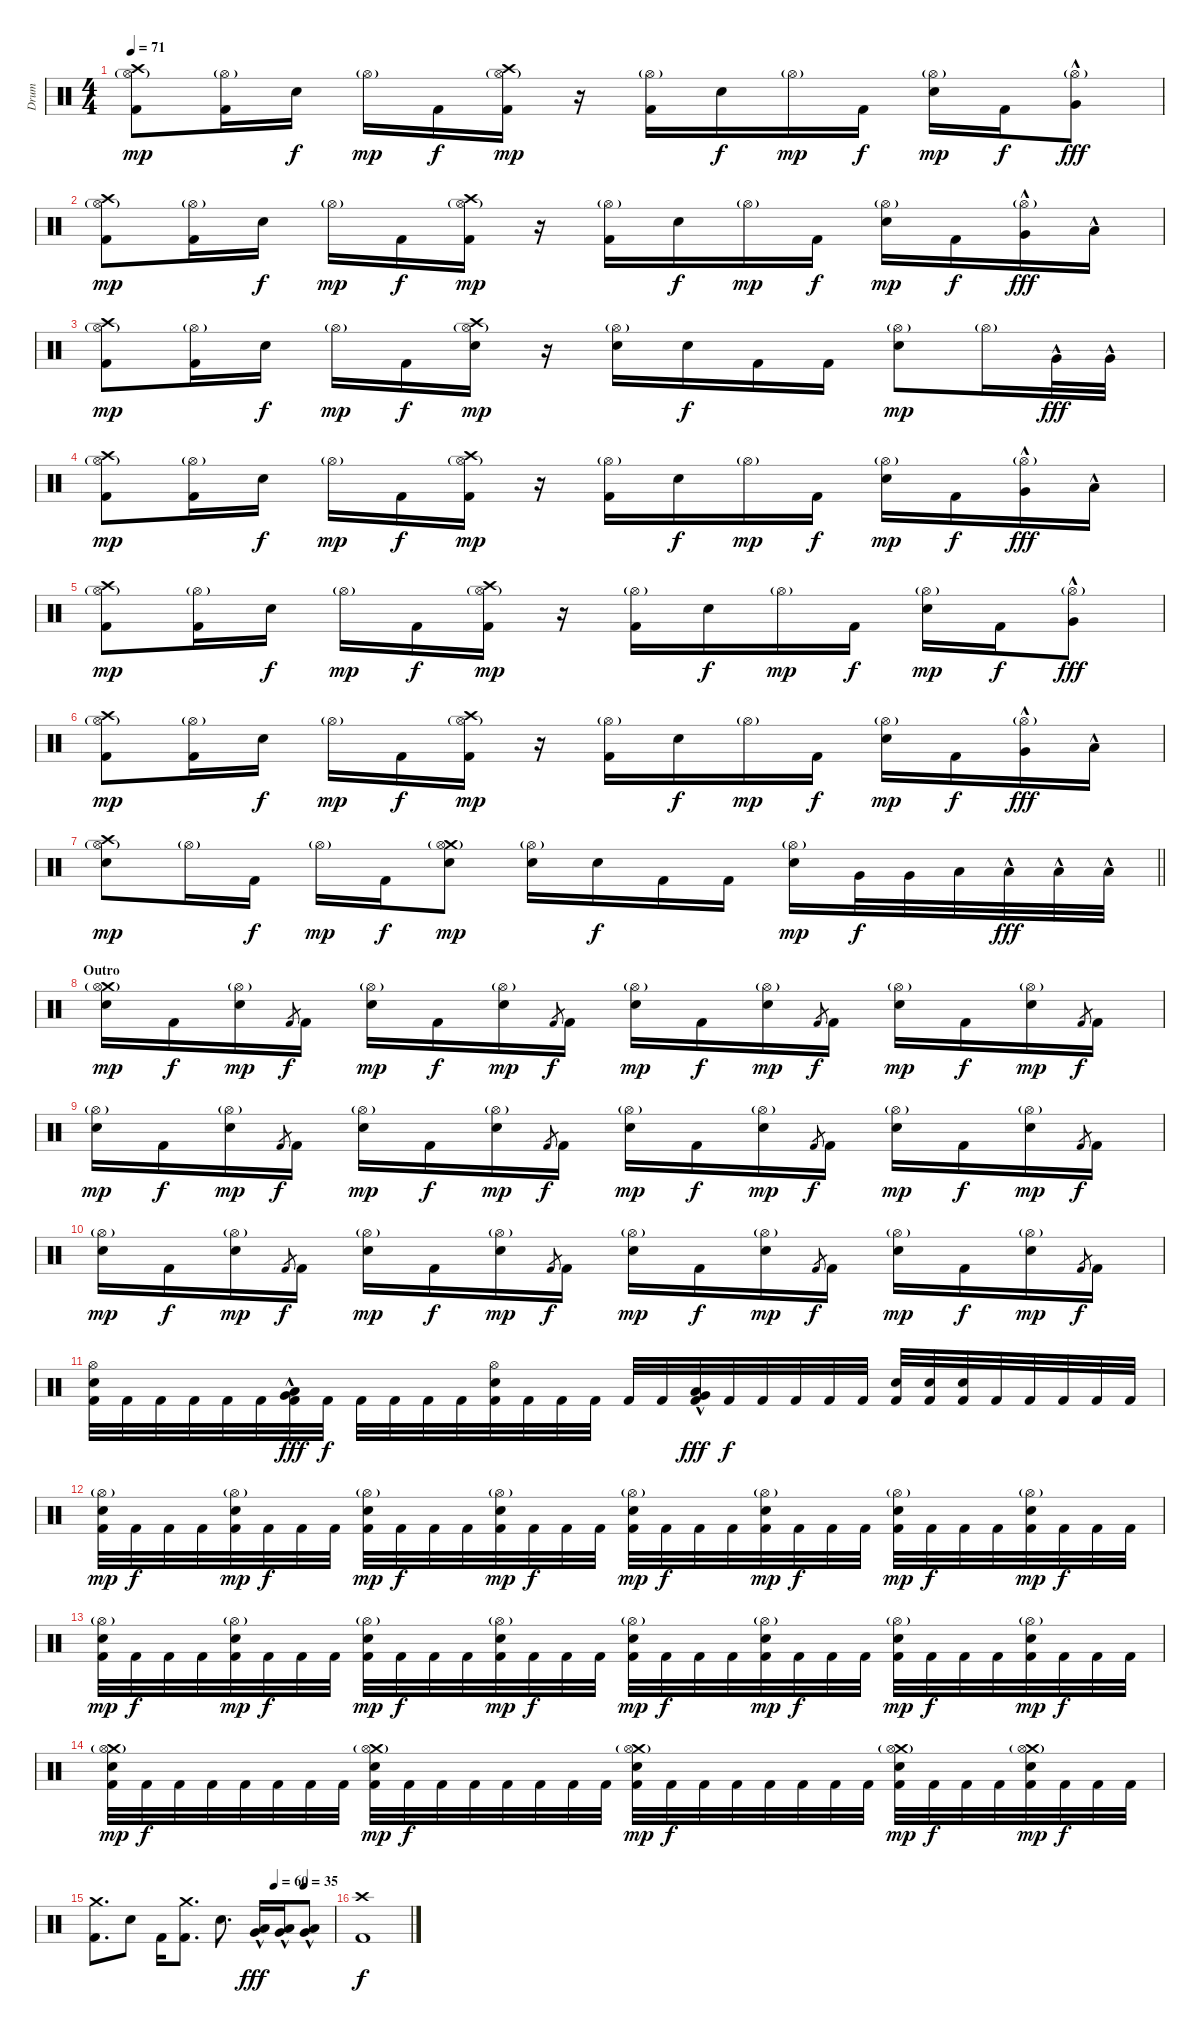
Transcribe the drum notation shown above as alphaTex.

\track ("Drum" "Drum") {instrument percussion}
\staff {score}
\articulation defaults
\ts (4 4)
\tempo 71
\clef neutral
\ks c
("Crash high (hit)" "Hi-Hat (open)"{g} "Kick (hit) 2").8{dy mp} ("Hi-Hat (open)"{g} "Kick (hit) 2").16 "Electric Snare (hit)".16{dy f} "Hi-Hat (open)"{g}.16{dy mp} "Kick (hit) 2".16{dy f} ("Crash high (hit)" "Hi-Hat (open)"{g} "Kick (hit) 2").16{dy mp} r.16 ("Hi-Hat (open)"{g} "Kick (hit) 2").16 "Electric Snare (hit)".16{dy f} "Hi-Hat (open)"{g}.16{dy mp} "Kick (hit) 2".16{dy f} ("Hi-Hat (open)"{g} "Electric Snare (hit)").16{dy mp} "Kick (hit) 2".16{dy f} ("Hi-Hat (open)"{g} "Very Low Tom (hit)"{hac}).8{dy fff} |
("Crash high (hit)" "Hi-Hat (open)"{g} "Kick (hit) 2").8{dy mp} ("Hi-Hat (open)"{g} "Kick (hit) 2").16 "Electric Snare (hit)".16{dy f} "Hi-Hat (open)"{g}.16{dy mp} "Kick (hit) 2".16{dy f} ("Crash high (hit)" "Hi-Hat (open)"{g} "Kick (hit) 2").16{dy mp} r.16 ("Hi-Hat (open)"{g} "Kick (hit) 2").16 "Electric Snare (hit)".16{dy f} "Hi-Hat (open)"{g}.16{dy mp} "Kick (hit) 2".16{dy f} ("Hi-Hat (open)"{g} "Electric Snare (hit)").16{dy mp} "Kick (hit) 2".16{dy f} ("Hi-Hat (open)"{g} "Very Low Tom (hit)"{hac}).16{dy fff} "Low Floor Tom (hit)"{hac}.16 |
("Crash high (hit)" "Hi-Hat (open)"{g} "Kick (hit) 2").8{dy mp} ("Hi-Hat (open)"{g} "Kick (hit) 2").16 "Electric Snare (hit)".16{dy f} "Hi-Hat (open)"{g}.16{dy mp} "Kick (hit) 2".16{dy f} ("Crash high (hit)" "Hi-Hat (open)"{g} "Electric Snare (hit)").16{dy mp} r.16 ("Hi-Hat (open)"{g} "Electric Snare (hit)").16 "Electric Snare (hit)".16{dy f} "Kick (hit) 2".16 "Kick (hit) 2".16 ("Hi-Hat (open)"{g} "Electric Snare (hit)").8{dy mp} "Hi-Hat (open)"{g}.16 "Very Low Tom (hit)"{hac}.32{dy fff} "Very Low Tom (hit)"{hac}.32 |
("Crash high (hit)" "Hi-Hat (open)"{g} "Kick (hit) 2").8{dy mp} ("Hi-Hat (open)"{g} "Kick (hit) 2").16 "Electric Snare (hit)".16{dy f} "Hi-Hat (open)"{g}.16{dy mp} "Kick (hit) 2".16{dy f} ("Crash high (hit)" "Hi-Hat (open)"{g} "Kick (hit) 2").16{dy mp} r.16 ("Hi-Hat (open)"{g} "Kick (hit) 2").16 "Electric Snare (hit)".16{dy f} "Hi-Hat (open)"{g}.16{dy mp} "Kick (hit) 2".16{dy f} ("Hi-Hat (open)"{g} "Electric Snare (hit)").16{dy mp} "Kick (hit) 2".16{dy f} ("Hi-Hat (open)"{g} "Very Low Tom (hit)"{hac}).16{dy fff} "Low Floor Tom (hit)"{hac}.16 |
("Crash high (hit)" "Hi-Hat (open)"{g} "Kick (hit) 2").8{dy mp} ("Hi-Hat (open)"{g} "Kick (hit) 2").16 "Electric Snare (hit)".16{dy f} "Hi-Hat (open)"{g}.16{dy mp} "Kick (hit) 2".16{dy f} ("Crash high (hit)" "Hi-Hat (open)"{g} "Kick (hit) 2").16{dy mp} r.16 ("Hi-Hat (open)"{g} "Kick (hit) 2").16 "Electric Snare (hit)".16{dy f} "Hi-Hat (open)"{g}.16{dy mp} "Kick (hit) 2".16{dy f} ("Hi-Hat (open)"{g} "Electric Snare (hit)").16{dy mp} "Kick (hit) 2".16{dy f} ("Hi-Hat (open)"{g} "Very Low Tom (hit)"{hac}).8{dy fff} |
("Crash high (hit)" "Hi-Hat (open)"{g} "Kick (hit) 2").8{dy mp} ("Hi-Hat (open)"{g} "Kick (hit) 2").16 "Electric Snare (hit)".16{dy f} "Hi-Hat (open)"{g}.16{dy mp} "Kick (hit) 2".16{dy f} ("Crash high (hit)" "Hi-Hat (open)"{g} "Kick (hit) 2").16{dy mp} r.16 ("Hi-Hat (open)"{g} "Kick (hit) 2").16 "Electric Snare (hit)".16{dy f} "Hi-Hat (open)"{g}.16{dy mp} "Kick (hit) 2".16{dy f} ("Hi-Hat (open)"{g} "Electric Snare (hit)").16{dy mp} "Kick (hit) 2".16{dy f} ("Hi-Hat (open)"{g} "Very Low Tom (hit)"{hac}).16{dy fff} "Low Floor Tom (hit)"{hac}.16 |
\barLineRight lightlight
("Crash high (hit)" "Hi-Hat (open)"{g} "Electric Snare (hit)").8{dy mp} "Hi-Hat (open)"{g}.16 "Kick (hit) 2".16{dy f} "Hi-Hat (open)"{g}.16{dy mp} "Kick (hit) 2".16{dy f} ("Crash medium (hit)" "Hi-Hat (open)"{g} "Electric Snare (hit)").8{dy mp} ("Hi-Hat (open)"{g} "Electric Snare (hit)").16 "Electric Snare (hit)".16{dy f} "Kick (hit) 2".16 "Kick (hit) 2".16 ("Hi-Hat (open)"{g} "Electric Snare (hit)").16{dy mp} "Very Low Tom (hit)".32{dy f} "Very Low Tom (hit)".32 "Low Floor Tom (hit)".32 "Low Floor Tom (hit)"{hac}.32{dy fff} "Low Floor Tom (hit)"{hac}.32 "Low Floor Tom (hit)"{hac}.32 |
\section ("" "Outro")
("Crash medium (hit)" "Hi-Hat (open)"{g} "Electric Snare (hit)").16{dy mp} "Kick (hit) 2".16{dy f} ("Hi-Hat (open)"{g} "Electric Snare (hit)").16{dy mp} "Kick (hit) 2".8{gr dy f} "Kick (hit) 2".16 ("Hi-Hat (open)"{g} "Electric Snare (hit)").16{dy mp} "Kick (hit) 2".16{dy f} ("Hi-Hat (open)"{g} "Electric Snare (hit)").16{dy mp} "Kick (hit) 2".8{gr dy f} "Kick (hit) 2".16 ("Hi-Hat (open)"{g} "Electric Snare (hit)").16{dy mp} "Kick (hit) 2".16{dy f} ("Hi-Hat (open)"{g} "Electric Snare (hit)").16{dy mp} "Kick (hit) 2".8{gr dy f} "Kick (hit) 2".16 ("Hi-Hat (open)"{g} "Electric Snare (hit)").16{dy mp} "Kick (hit) 2".16{dy f} ("Hi-Hat (open)"{g} "Electric Snare (hit)").16{dy mp} "Kick (hit) 2".8{gr dy f} "Kick (hit) 2".16 |
("Hi-Hat (open)"{g} "Electric Snare (hit)").16{dy mp} "Kick (hit) 2".16{dy f} ("Hi-Hat (open)"{g} "Electric Snare (hit)").16{dy mp} "Kick (hit) 2".8{gr dy f} "Kick (hit) 2".16 ("Hi-Hat (open)"{g} "Electric Snare (hit)").16{dy mp} "Kick (hit) 2".16{dy f} ("Hi-Hat (open)"{g} "Electric Snare (hit)").16{dy mp} "Kick (hit) 2".8{gr dy f} "Kick (hit) 2".16 ("Hi-Hat (open)"{g} "Electric Snare (hit)").16{dy mp} "Kick (hit) 2".16{dy f} ("Hi-Hat (open)"{g} "Electric Snare (hit)").16{dy mp} "Kick (hit) 2".8{gr dy f} "Kick (hit) 2".16 ("Hi-Hat (open)"{g} "Electric Snare (hit)").16{dy mp} "Kick (hit) 2".16{dy f} ("Hi-Hat (open)"{g} "Electric Snare (hit)").16{dy mp} "Kick (hit) 2".8{gr dy f} "Kick (hit) 2".16 |
("Hi-Hat (open)"{g} "Electric Snare (hit)").16{dy mp} "Kick (hit) 2".16{dy f} ("Hi-Hat (open)"{g} "Electric Snare (hit)").16{dy mp} "Kick (hit) 2".8{gr dy f} "Kick (hit) 2".16 ("Hi-Hat (open)"{g} "Electric Snare (hit)").16{dy mp} "Kick (hit) 2".16{dy f} ("Hi-Hat (open)"{g} "Electric Snare (hit)").16{dy mp} "Kick (hit) 2".8{gr dy f} "Kick (hit) 2".16 ("Hi-Hat (open)"{g} "Electric Snare (hit)").16{dy mp} "Kick (hit) 2".16{dy f} ("Hi-Hat (open)"{g} "Electric Snare (hit)").16{dy mp} "Kick (hit) 2".8{gr dy f} "Kick (hit) 2".16 ("Hi-Hat (open)"{g} "Electric Snare (hit)").16{dy mp} "Kick (hit) 2".16{dy f} ("Hi-Hat (open)"{g} "Electric Snare (hit)").16{dy mp} "Kick (hit) 2".8{gr dy f} "Kick (hit) 2".16 |
("Hi-Hat (open)" "Electric Snare (hit)" "Kick (hit) 2").32 "Kick (hit) 2".32 "Kick (hit) 2".32 "Kick (hit) 2".32 "Kick (hit) 2".32 "Kick (hit) 2".32 ("Low Floor Tom (hit)"{hac} "Very Low Tom (hit)"{hac} "Kick (hit) 2").32{dy fff} "Kick (hit) 2".32{dy f} "Kick (hit) 2".32 "Kick (hit) 2".32 "Kick (hit) 2".32 "Kick (hit) 2".32 ("Hi-Hat (open)" "Electric Snare (hit)" "Kick (hit) 2").32 "Kick (hit) 2".32 "Kick (hit) 2".32 "Kick (hit) 2".32 "Kick (hit) 2".32 "Kick (hit) 2".32 ("Low Floor Tom (hit)"{hac} "Very Low Tom (hit)"{hac} "Kick (hit) 2").32{dy fff} "Kick (hit) 2".32{dy f} "Kick (hit) 2".32 "Kick (hit) 2".32 "Kick (hit) 2".32 "Kick (hit) 2".32 ("Electric Snare (hit)" "Kick (hit) 2").32 ("Electric Snare (hit)" "Kick (hit) 2").32 ("Electric Snare (hit)" "Kick (hit) 2").32 "Kick (hit) 2".32 "Kick (hit) 2".32 "Kick (hit) 2".32 "Kick (hit) 2".32 "Kick (hit) 2".32 |
("Hi-Hat (open)"{g} "Electric Snare (hit)" "Kick (hit) 2").32{dy mp} "Kick (hit) 2".32{dy f} "Kick (hit) 2".32 "Kick (hit) 2".32 ("Hi-Hat (open)"{g} "Electric Snare (hit)" "Kick (hit) 2").32{dy mp} "Kick (hit) 2".32{dy f} "Kick (hit) 2".32 "Kick (hit) 2".32 ("Hi-Hat (open)"{g} "Electric Snare (hit)" "Kick (hit) 2").32{dy mp} "Kick (hit) 2".32{dy f} "Kick (hit) 2".32 "Kick (hit) 2".32 ("Hi-Hat (open)"{g} "Electric Snare (hit)" "Kick (hit) 2").32{dy mp} "Kick (hit) 2".32{dy f} "Kick (hit) 2".32 "Kick (hit) 2".32 ("Hi-Hat (open)"{g} "Electric Snare (hit)" "Kick (hit) 2").32{dy mp} "Kick (hit) 2".32{dy f} "Kick (hit) 2".32 "Kick (hit) 2".32 ("Hi-Hat (open)"{g} "Electric Snare (hit)" "Kick (hit) 2").32{dy mp} "Kick (hit) 2".32{dy f} "Kick (hit) 2".32 "Kick (hit) 2".32 ("Hi-Hat (open)"{g} "Electric Snare (hit)" "Kick (hit) 2").32{dy mp} "Kick (hit) 2".32{dy f} "Kick (hit) 2".32 "Kick (hit) 2".32 ("Hi-Hat (open)"{g} "Electric Snare (hit)" "Kick (hit) 2").32{dy mp} "Kick (hit) 2".32{dy f} "Kick (hit) 2".32 "Kick (hit) 2".32 |
("Hi-Hat (open)"{g} "Electric Snare (hit)" "Kick (hit) 2").32{dy mp} "Kick (hit) 2".32{dy f} "Kick (hit) 2".32 "Kick (hit) 2".32 ("Hi-Hat (open)"{g} "Electric Snare (hit)" "Kick (hit) 2").32{dy mp} "Kick (hit) 2".32{dy f} "Kick (hit) 2".32 "Kick (hit) 2".32 ("Hi-Hat (open)"{g} "Electric Snare (hit)" "Kick (hit) 2").32{dy mp} "Kick (hit) 2".32{dy f} "Kick (hit) 2".32 "Kick (hit) 2".32 ("Hi-Hat (open)"{g} "Electric Snare (hit)" "Kick (hit) 2").32{dy mp} "Kick (hit) 2".32{dy f} "Kick (hit) 2".32 "Kick (hit) 2".32 ("Hi-Hat (open)"{g} "Electric Snare (hit)" "Kick (hit) 2").32{dy mp} "Kick (hit) 2".32{dy f} "Kick (hit) 2".32 "Kick (hit) 2".32 ("Hi-Hat (open)"{g} "Electric Snare (hit)" "Kick (hit) 2").32{dy mp} "Kick (hit) 2".32{dy f} "Kick (hit) 2".32 "Kick (hit) 2".32 ("Hi-Hat (open)"{g} "Electric Snare (hit)" "Kick (hit) 2").32{dy mp} "Kick (hit) 2".32{dy f} "Kick (hit) 2".32 "Kick (hit) 2".32 ("Hi-Hat (open)"{g} "Electric Snare (hit)" "Kick (hit) 2").32{dy mp} "Kick (hit) 2".32{dy f} "Kick (hit) 2".32 "Kick (hit) 2".32 |
("Crash medium (hit)" "Hi-Hat (open)"{g} "Electric Snare (hit)" "Kick (hit) 2").32{dy mp} "Kick (hit) 2".32{dy f} "Kick (hit) 2".32 "Kick (hit) 2".32 "Kick (hit) 2".32 "Kick (hit) 2".32 "Kick (hit) 2".32 "Kick (hit) 2".32 ("Crash medium (hit)" "Hi-Hat (open)"{g} "Electric Snare (hit)" "Kick (hit) 2").32{dy mp} "Kick (hit) 2".32{dy f} "Kick (hit) 2".32 "Kick (hit) 2".32 "Kick (hit) 2".32 "Kick (hit) 2".32 "Kick (hit) 2".32 "Kick (hit) 2".32 ("Crash medium (hit)" "Hi-Hat (open)"{g} "Electric Snare (hit)" "Kick (hit) 2").32{dy mp} "Kick (hit) 2".32{dy f} "Kick (hit) 2".32 "Kick (hit) 2".32 "Kick (hit) 2".32 "Kick (hit) 2".32 "Kick (hit) 2".32 "Kick (hit) 2".32 ("Crash medium (hit)" "Hi-Hat (open)"{g} "Electric Snare (hit)" "Kick (hit) 2").32{dy mp} "Kick (hit) 2".32{dy f} "Kick (hit) 2".32 "Kick (hit) 2".32 ("Crash medium (hit)" "Hi-Hat (open)"{g} "Electric Snare (hit)" "Kick (hit) 2").32{dy mp} "Kick (hit) 2".32{dy f} "Kick (hit) 2".32 "Kick (hit) 2".32 |
\tempo (60 0.75)
\tempo (35 0.875)
("Crash medium (hit)" "Kick (hit) 2").8{d} "Electric Snare (hit)".8 "Kick (hit) 2".16 ("Crash medium (hit)" "Kick (hit) 2").8{d} "Electric Snare (hit)".8{d} ("Very Low Tom (hit)"{hac} "Low Floor Tom (hit)"{hac}).16{dy fff} ("Very Low Tom (hit)"{hac} "Low Floor Tom (hit)"{hac}).16 ("Very Low Tom (hit)"{hac} "Low Floor Tom (hit)"{hac}).8 |
("Crash high (hit)" "Kick (hit) 2").1{dy f}
